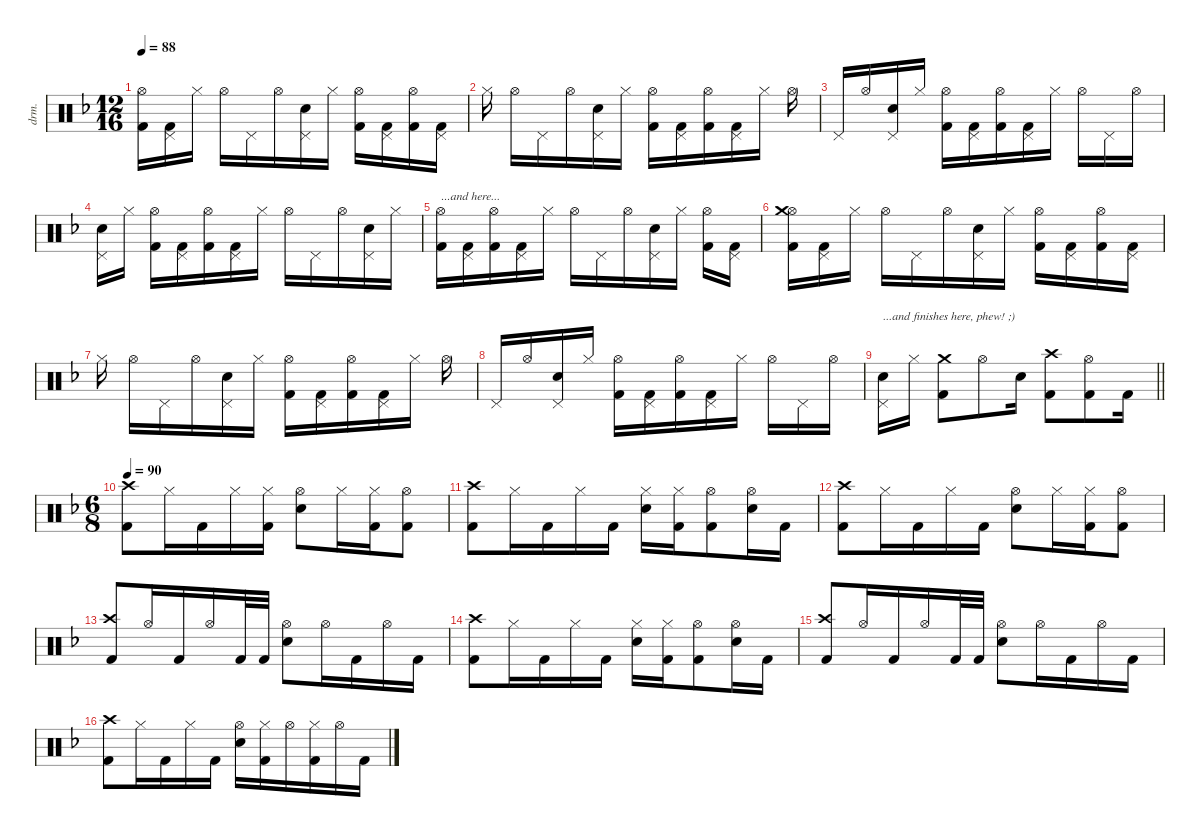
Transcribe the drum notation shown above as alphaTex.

\defaultSystemsLayout 4
\hideDynamics
\bracketExtendMode nobrackets
\otherSystemsTrackNameOrientation horizontal
\track ("Drums" "drm.") {instrument percussion}
\staff {score}
\articulation defaults
\ts (12 16)
\tempo 88
\clef neutral
\ks dminor
("Hi-Hat (open)"{acc forcenatural} "Kick (hit) 2"{acc forcenatural}).16{dy f beam Down beam merge} ("Pedal Hi-Hat (hit)"{acc forcenatural} "Kick (hit) 2"{acc forcenatural}).16{beam Down beam merge} "Hi-Hat (closed)"{acc forcenatural}.16{beam Down} "Hi-Hat (open)"{acc forcenatural}.16{beam Down} "Pedal Hi-Hat (hit)"{acc forcenatural}.16{beam Down beam merge} "Hi-Hat (open)"{acc forcenatural}.16{beam Down beam merge} ("Pedal Hi-Hat (hit)"{acc forcenatural} "Snare (hit) 2"{acc forcenatural}).16{beam Down beam merge} "Hi-Hat (closed)"{acc forcenatural}.16{beam Down beam split} ("Hi-Hat (open)"{acc forcenatural} "Kick (hit) 2"{acc forcenatural}).16{beam Down beam merge} ("Pedal Hi-Hat (hit)"{acc forcenatural} "Kick (hit) 2"{acc forcenatural}).16{beam Down} ("Hi-Hat (open)"{acc forcenatural} "Kick (hit) 2"{acc forcenatural}).16{beam Down beam merge} ("Pedal Hi-Hat (hit)"{acc forcenatural} "Kick (hit) 2"{acc forcenatural}).16{beam Down} |
"Hi-Hat (closed)"{acc forcenatural}.16{beam Down beam split} "Hi-Hat (open)"{acc forcenatural}.16{beam Down} "Pedal Hi-Hat (hit)"{acc forcenatural}.16{beam Down beam merge} "Hi-Hat (open)"{acc forcenatural}.16{beam Down beam merge} ("Pedal Hi-Hat (hit)"{acc forcenatural} "Snare (hit) 2"{acc forcenatural}).16{beam Down beam merge} "Hi-Hat (closed)"{acc forcenatural}.16{beam Down beam split} ("Hi-Hat (open)"{acc forcenatural} "Kick (hit) 2"{acc forcenatural}).16{beam Down beam merge} ("Pedal Hi-Hat (hit)"{acc forcenatural} "Kick (hit) 2"{acc forcenatural}).16{beam Down} ("Hi-Hat (open)"{acc forcenatural} "Kick (hit) 2"{acc forcenatural}).16{beam Down beam merge} ("Pedal Hi-Hat (hit)"{acc forcenatural} "Kick (hit) 2"{acc forcenatural}).16{beam Down beam merge} "Hi-Hat (closed)"{acc forcenatural}.16{beam Down beam split} "Hi-Hat (open)"{acc forcenatural}.16{beam Down} |
"Pedal Hi-Hat (hit)"{acc forcenatural}.16{beam Up beam merge} "Hi-Hat (open)"{acc forcenatural}.16{beam Up beam merge} ("Pedal Hi-Hat (hit)"{acc forcenatural} "Snare (hit) 2"{acc forcenatural}).16{beam Up beam merge} "Hi-Hat (closed)"{acc forcenatural}.16{beam Up beam split} ("Hi-Hat (open)"{acc forcenatural} "Kick (hit) 2"{acc forcenatural}).16{beam Down beam merge} ("Pedal Hi-Hat (hit)"{acc forcenatural} "Kick (hit) 2"{acc forcenatural}).16{beam Down beam merge} ("Hi-Hat (open)"{acc forcenatural} "Kick (hit) 2"{acc forcenatural}).16{beam Down beam merge} ("Pedal Hi-Hat (hit)"{acc forcenatural} "Kick (hit) 2"{acc forcenatural}).16{beam Down beam merge} "Hi-Hat (closed)"{acc forcenatural}.16{beam Down beam split} "Hi-Hat (open)"{acc forcenatural}.16{beam Down beam merge} "Pedal Hi-Hat (hit)"{acc forcenatural}.16{beam Down beam merge} "Hi-Hat (open)"{acc forcenatural}.16{beam Down} |
("Pedal Hi-Hat (hit)"{acc forcenatural} "Snare (hit) 2"{acc forcenatural}).16{beam Down beam merge} "Hi-Hat (closed)"{acc forcenatural}.16{beam Down beam split} ("Hi-Hat (open)"{acc forcenatural} "Kick (hit) 2"{acc forcenatural}).16{beam Down beam merge} ("Pedal Hi-Hat (hit)"{acc forcenatural} "Kick (hit) 2"{acc forcenatural}).16{beam Down beam merge} ("Hi-Hat (open)"{acc forcenatural} "Kick (hit) 2"{acc forcenatural}).16{beam Down beam merge} ("Pedal Hi-Hat (hit)"{acc forcenatural} "Kick (hit) 2"{acc forcenatural}).16{beam Down beam merge} "Hi-Hat (closed)"{acc forcenatural}.16{beam Down beam split} "Hi-Hat (open)"{acc forcenatural}.16{beam Down} "Pedal Hi-Hat (hit)"{acc forcenatural}.16{beam Down beam merge} "Hi-Hat (open)"{acc forcenatural}.16{beam Down beam merge} ("Pedal Hi-Hat (hit)"{acc forcenatural} "Snare (hit) 2"{acc forcenatural}).16{beam Down beam merge} "Hi-Hat (closed)"{acc forcenatural}.16{beam Down} |
("Hi-Hat (open)"{acc forcenatural} "Kick (hit) 2"{acc forcenatural}).16{txt "...and here..." beam Down beam merge} ("Pedal Hi-Hat (hit)"{acc forcenatural} "Kick (hit) 2"{acc forcenatural}).16{beam Down} ("Hi-Hat (open)"{acc forcenatural} "Kick (hit) 2"{acc forcenatural}).16{beam Down beam merge} ("Pedal Hi-Hat (hit)"{acc forcenatural} "Kick (hit) 2"{acc forcenatural}).16{beam Down beam merge} "Hi-Hat (closed)"{acc forcenatural}.16{beam Down beam split} "Hi-Hat (open)"{acc forcenatural}.16{beam Down beam merge} "Pedal Hi-Hat (hit)"{acc forcenatural}.16{beam Down beam merge} "Hi-Hat (open)"{acc forcenatural}.16{beam Down beam merge} ("Pedal Hi-Hat (hit)"{acc forcenatural} "Snare (hit) 2"{acc forcenatural}).16{beam Down beam merge} "Hi-Hat (closed)"{acc forcenatural}.16{beam Down beam split} ("Hi-Hat (open)"{acc forcenatural} "Kick (hit) 2"{acc forcenatural}).16{beam Down beam merge} ("Pedal Hi-Hat (hit)"{acc forcenatural} "Kick (hit) 2"{acc forcenatural}).16{beam Down} |
("Hi-Hat (open)"{acc forcenatural} "Crash medium (hit)"{acc forcenatural} "Kick (hit) 2"{acc forcenatural}).16{beam Down beam merge} ("Pedal Hi-Hat (hit)"{acc forcenatural} "Kick (hit) 2"{acc forcenatural}).16{beam Down beam merge} "Hi-Hat (closed)"{acc forcenatural}.16{beam Down} "Hi-Hat (open)"{acc forcenatural}.16{beam Down} "Pedal Hi-Hat (hit)"{acc forcenatural}.16{beam Down beam merge} "Hi-Hat (open)"{acc forcenatural}.16{beam Down beam merge} ("Pedal Hi-Hat (hit)"{acc forcenatural} "Snare (hit) 2"{acc forcenatural}).16{beam Down beam merge} "Hi-Hat (closed)"{acc forcenatural}.16{beam Down beam split} ("Hi-Hat (open)"{acc forcenatural} "Kick (hit) 2"{acc forcenatural}).16{beam Down beam merge} ("Pedal Hi-Hat (hit)"{acc forcenatural} "Kick (hit) 2"{acc forcenatural}).16{beam Down} ("Hi-Hat (open)"{acc forcenatural} "Kick (hit) 2"{acc forcenatural}).16{beam Down beam merge} ("Pedal Hi-Hat (hit)"{acc forcenatural} "Kick (hit) 2"{acc forcenatural}).16{beam Down} |
"Hi-Hat (closed)"{acc forcenatural}.16{beam Down beam split} "Hi-Hat (open)"{acc forcenatural}.16{beam Down} "Pedal Hi-Hat (hit)"{acc forcenatural}.16{beam Down beam merge} "Hi-Hat (open)"{acc forcenatural}.16{beam Down beam merge} ("Pedal Hi-Hat (hit)"{acc forcenatural} "Snare (hit) 2"{acc forcenatural}).16{beam Down beam merge} "Hi-Hat (closed)"{acc forcenatural}.16{beam Down beam split} ("Hi-Hat (open)"{acc forcenatural} "Kick (hit) 2"{acc forcenatural}).16{beam Down beam merge} ("Pedal Hi-Hat (hit)"{acc forcenatural} "Kick (hit) 2"{acc forcenatural}).16{beam Down} ("Hi-Hat (open)"{acc forcenatural} "Kick (hit) 2"{acc forcenatural}).16{beam Down beam merge} ("Pedal Hi-Hat (hit)"{acc forcenatural} "Kick (hit) 2"{acc forcenatural}).16{beam Down beam merge} "Hi-Hat (closed)"{acc forcenatural}.16{beam Down beam split} "Hi-Hat (open)"{acc forcenatural}.16{beam Down} |
"Pedal Hi-Hat (hit)"{acc forcenatural}.16{beam Up beam merge} "Hi-Hat (open)"{acc forcenatural}.16{beam Up beam merge} ("Pedal Hi-Hat (hit)"{acc forcenatural} "Snare (hit) 2"{acc forcenatural}).16{beam Up beam merge} "Hi-Hat (closed)"{acc forcenatural}.16{beam Up beam split} ("Hi-Hat (open)"{acc forcenatural} "Kick (hit) 2"{acc forcenatural}).16{beam Down beam merge} ("Pedal Hi-Hat (hit)"{acc forcenatural} "Kick (hit) 2"{acc forcenatural}).16{beam Down beam merge} ("Hi-Hat (open)"{acc forcenatural} "Kick (hit) 2"{acc forcenatural}).16{beam Down beam merge} ("Pedal Hi-Hat (hit)"{acc forcenatural} "Kick (hit) 2"{acc forcenatural}).16{beam Down beam merge} "Hi-Hat (closed)"{acc forcenatural}.16{beam Down beam split} "Hi-Hat (open)"{acc forcenatural}.16{beam Down beam merge} "Pedal Hi-Hat (hit)"{acc forcenatural}.16{beam Down beam merge} "Hi-Hat (open)"{acc forcenatural}.16{beam Down} |
\barLineRight lightlight
("Pedal Hi-Hat (hit)"{acc forcenatural} "Snare (hit) 2"{acc forcenatural}).16{txt "...and finishes here, phew! ;)" beam Down beam merge} "Hi-Hat (closed)"{acc forcenatural}.16{beam Down beam split} ("Crash medium (hit)"{acc forcenatural} "Kick (hit) 2"{acc forcenatural}).8{beam Down beam merge} "Hi-Hat (open)"{acc forcenatural}.8{beam Down beam merge} "Snare (hit) 2"{acc forcenatural}.16{beam Down beam split} ("Crash high (hit)"{acc forcenatural} "Kick (hit) 2"{acc forcenatural}).8{beam Down beam merge} ("Hi-Hat (open)"{acc forcenatural} "Kick (hit) 2"{acc forcenatural}).8{beam Down} "Kick (hit) 2"{acc forcenatural}.16{beam Down} |
\ts (6 8)
\beaming (8 3 3)
\tempo 90
("Crash high (hit)"{acc forcenatural} "Kick (hit) 2"{acc forcenatural}).8{beam Down} "Hi-Hat (closed)"{acc forcenatural}.16{beam Down} "Kick (hit) 2"{acc forcenatural}.16{beam Down} "Hi-Hat (closed)"{acc forcenatural}.16{beam Down} ("Hi-Hat (closed)"{acc forcenatural} "Kick (hit) 2"{acc forcenatural}).16{beam Down} ("Hi-Hat (open)"{acc forcenatural} "Snare (hit) 2"{acc forcenatural}).8{beam Down} "Hi-Hat (closed)"{acc forcenatural}.16{beam Down} ("Hi-Hat (closed)"{acc forcenatural} "Kick (hit) 2"{acc forcenatural}).16{beam Down} ("Hi-Hat (open)"{acc forcenatural} "Kick (hit) 2"{acc forcenatural}).8{beam Down} |
("Crash high (hit)"{acc forcenatural} "Kick (hit) 2"{acc forcenatural}).8{beam Down} "Hi-Hat (closed)"{acc forcenatural}.16{beam Down} "Kick (hit) 2"{acc forcenatural}.16{beam Down} "Hi-Hat (closed)"{acc forcenatural}.16{beam Down} "Kick (hit) 2"{acc forcenatural}.16{beam Down} ("Hi-Hat (closed)"{acc forcenatural} "Snare (hit) 2"{acc forcenatural}).16{beam Down} ("Hi-Hat (closed)"{acc forcenatural} "Kick (hit) 2"{acc forcenatural}).16{beam Down} ("Hi-Hat (open)"{acc forcenatural} "Kick (hit) 2"{acc forcenatural}).8{beam Down} ("Hi-Hat (open)"{acc forcenatural} "Snare (hit) 2"{acc forcenatural}).16{beam Down} "Kick (hit) 2"{acc forcenatural}.16{beam Down} |
("Crash high (hit)"{acc forcenatural} "Kick (hit) 2"{acc forcenatural}).8{beam Down} "Hi-Hat (closed)"{acc forcenatural}.16{beam Down} "Kick (hit) 2"{acc forcenatural}.16{beam Down} "Hi-Hat (closed)"{acc forcenatural}.16{beam Down} "Kick (hit) 2"{acc forcenatural}.16{beam Down} ("Hi-Hat (open)"{acc forcenatural} "Snare (hit) 2"{acc forcenatural}).8{beam Down} "Hi-Hat (closed)"{acc forcenatural}.16{beam Down} ("Hi-Hat (closed)"{acc forcenatural} "Kick (hit) 2"{acc forcenatural}).16{beam Down} ("Hi-Hat (open)"{acc forcenatural} "Kick (hit) 2"{acc forcenatural}).8{beam Down} |
("Crash high (hit)"{acc forcenatural} "Kick (hit) 2"{acc forcenatural}).8{beam Up} "Hi-Hat (open)"{acc forcenatural}.16{beam Up} "Kick (hit) 2"{acc forcenatural}.16{beam Up} "Hi-Hat (open)"{acc forcenatural}.16{beam Up} "Kick (hit) 2"{acc forcenatural}.32{beam Up} "Kick (hit) 2"{acc forcenatural}.32{beam Up} ("Hi-Hat (open)"{acc forcenatural} "Snare (hit) 2"{acc forcenatural}).8{beam Down} "Hi-Hat (open)"{acc forcenatural}.16{beam Down} "Kick (hit) 2"{acc forcenatural}.16{beam Down} "Hi-Hat (open)"{acc forcenatural}.16{beam Down} "Kick (hit) 2"{acc forcenatural}.16{beam Down} |
("Crash high (hit)"{acc forcenatural} "Kick (hit) 2"{acc forcenatural}).8{beam Down} "Hi-Hat (closed)"{acc forcenatural}.16{beam Down} "Kick (hit) 2"{acc forcenatural}.16{beam Down} "Hi-Hat (closed)"{acc forcenatural}.16{beam Down} "Kick (hit) 2"{acc forcenatural}.16{beam Down} ("Hi-Hat (closed)"{acc forcenatural} "Snare (hit) 2"{acc forcenatural}).16{beam Down} ("Hi-Hat (closed)"{acc forcenatural} "Kick (hit) 2"{acc forcenatural}).16{beam Down} ("Hi-Hat (open)"{acc forcenatural} "Kick (hit) 2"{acc forcenatural}).8{beam Down} ("Hi-Hat (open)"{acc forcenatural} "Snare (hit) 2"{acc forcenatural}).16{beam Down} "Kick (hit) 2"{acc forcenatural}.16{beam Down} |
("Crash high (hit)"{acc forcenatural} "Kick (hit) 2"{acc forcenatural}).8{beam Up} "Hi-Hat (open)"{acc forcenatural}.16{beam Up} "Kick (hit) 2"{acc forcenatural}.16{beam Up} "Hi-Hat (open)"{acc forcenatural}.16{beam Up} "Kick (hit) 2"{acc forcenatural}.32{beam Up} "Kick (hit) 2"{acc forcenatural}.32{beam Up} ("Hi-Hat (open)"{acc forcenatural} "Snare (hit) 2"{acc forcenatural}).8{beam Down} "Hi-Hat (open)"{acc forcenatural}.16{beam Down} "Kick (hit) 2"{acc forcenatural}.16{beam Down} "Hi-Hat (open)"{acc forcenatural}.16{beam Down} "Kick (hit) 2"{acc forcenatural}.16{beam Down} |
("Crash high (hit)"{acc forcenatural} "Kick (hit) 2"{acc forcenatural}).8{beam Down} "Hi-Hat (closed)"{acc forcenatural}.16{beam Down} "Kick (hit) 2"{acc forcenatural}.16{beam Down} "Hi-Hat (closed)"{acc forcenatural}.16{beam Down} "Kick (hit) 2"{acc forcenatural}.16{beam Down} ("Hi-Hat (open)"{acc forcenatural} "Snare (hit) 2"{acc forcenatural}).16{beam Down} ("Hi-Hat (closed)"{acc forcenatural} "Kick (hit) 2"{acc forcenatural}).16{beam Down} "Hi-Hat (open)"{acc forcenatural}.16{beam Down} ("Hi-Hat (closed)"{acc forcenatural} "Kick (hit) 2"{acc forcenatural}).16{beam Down} "Hi-Hat (open)"{acc forcenatural}.16{beam Down} "Kick (hit) 2"{acc forcenatural}.16{beam Down}
